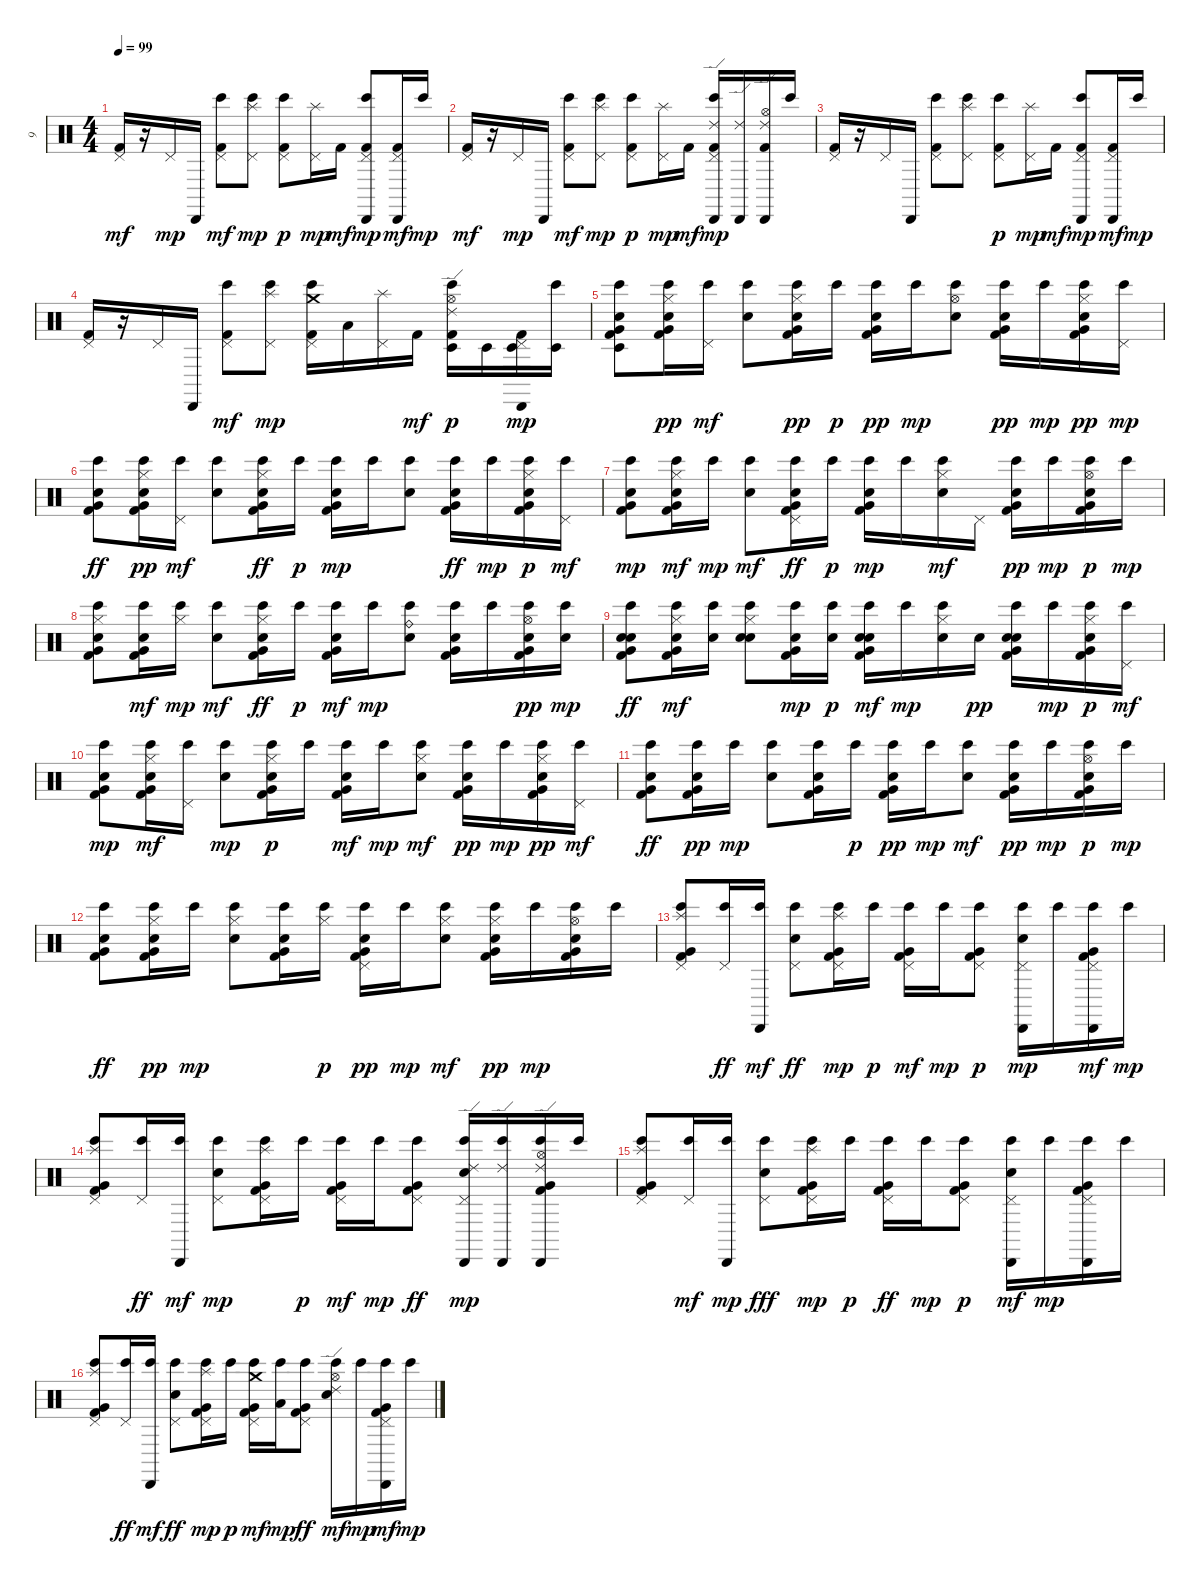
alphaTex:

\track ("9" "9") {instrument percussion}
\staff {score}
\articulation defaults
\ts (4 4)
\tempo 99
\clef neutral
\ks c
("Pedal Hi-Hat (hit)" "Kick (hit) 2").16{dy mf} r.16 "Pedal Hi-Hat (hit)".16{dy mp} "Cabasa (hit)".16 ("Bongo High (hit)" "Pedal Hi-Hat (hit)" "Kick (hit) 2").8{dy mf} ("Pedal Hi-Hat (hit)" "Bongo High (hit)" "Splash (hit)").8{dy mp} ("Kick (hit) 2" "Pedal Hi-Hat (hit)" "Bongo High (hit)").8{dy p} ("Splash (hit)" "Pedal Hi-Hat (hit)").16{dy mp} "Kick (hit) 2".16{dy mf} ("Bongo High (hit)" "Kick (hit) 2" "Cabasa (hit)" "Pedal Hi-Hat (hit)").8{dy mp} ("Pedal Hi-Hat (hit)" "Cabasa (hit)" "Kick (hit) 2").16{dy mf} "Bongo High (hit)".16{dy mp} |
("Pedal Hi-Hat (hit)" "Kick (hit) 2").16{dy mf} r.16 "Pedal Hi-Hat (hit)".16{dy mp} "Cabasa (hit)".16 ("Pedal Hi-Hat (hit)" "Bongo High (hit)" "Kick (hit) 2").8{dy mf} ("Pedal Hi-Hat (hit)" "Bongo High (hit)" "Splash (hit)").8{dy mp} ("Kick (hit) 2" "Pedal Hi-Hat (hit)" "Bongo High (hit)").8{dy p} ("Splash (hit)" "Pedal Hi-Hat (hit)").16{dy mp} "Kick (hit) 2".16{dy mf} ("Kick (hit) 2" "Ride (edge) 2" "Pedal Hi-Hat (hit)" "Cabasa (hit)" "Bongo High (hit)").16{dy mp} ("Ride (edge) 2" "Cabasa (hit)").16 ("Kick (hit) 2" "Ride (edge) 2" "Hi-Hat (open)" "Cabasa (hit)").16 "Bongo High (hit)".16 |
("Kick (hit) 2" "Pedal Hi-Hat (hit)").16 r.16 "Pedal Hi-Hat (hit)".16 "Cabasa (hit)".16 ("Bongo High (hit)" "Kick (hit) 2" "Pedal Hi-Hat (hit)").8 ("Bongo High (hit)" "Pedal Hi-Hat (hit)" "Splash (hit)").8 ("Pedal Hi-Hat (hit)" "Kick (hit) 2" "Bongo High (hit)").8{dy p} ("Pedal Hi-Hat (hit)" "Splash (hit)").16{dy mp} "Kick (hit) 2".16{dy mf} ("Pedal Hi-Hat (hit)" "Kick (hit) 2" "Cabasa (hit)" "Bongo High (hit)").8{dy mp} ("Pedal Hi-Hat (hit)" "Cabasa (hit)" "Kick (hit) 2").16{dy mf} "Bongo High (hit)".16{dy mp} |
("Kick (hit) 2" "Pedal Hi-Hat (hit)").16 r.16 "Pedal Hi-Hat (hit)".16 "Cabasa (hit)".16 ("Bongo High (hit)" "Pedal Hi-Hat (hit)" "Kick (hit) 2").8{dy mf} ("Pedal Hi-Hat (hit)" "Bongo High (hit)" "Splash (hit)").8{dy mp} ("Bongo High (hit)" "Kick (hit) 2" "Crash medium (hit)" "Pedal Hi-Hat (hit)").16 "Low Tom (hit)".16 ("Pedal Hi-Hat (hit)" "Splash (hit)").16 "Kick (hit) 2".16{dy mf} ("Hi-Hat (open)" "Kick (hit) 2" "Bongo High (hit)" "Ride (edge) 2" "Timbale low (hit)").16{dy p} "Timbale low (hit)".16 ("Kick (hit) 2" "Pedal Hi-Hat (hit)" "Cabasa (hit)" "Timbale low (hit)").16{dy mp} ("Bongo High (hit)" "Timbale low (hit)").16 |
("Electric Snare (hit)" "Kick (hit) 2" "Very Low Tom (hit)" "Timbale low (hit)" "Bongo High (hit)").8 ("Electric Snare (hit)" "Hi-Hat (closed)" "Bongo High (hit)" "Kick (hit) 2" "Very Low Tom (hit)").16{dy pp} ("Bongo High (hit)" "Pedal Hi-Hat (hit)").16{dy mf} ("Bongo High (hit)" "Electric Snare (hit)").8 ("Hi-Hat (closed)" "Kick (hit) 2" "Electric Snare (hit)" "Bongo High (hit)" "Very Low Tom (hit)").16{dy pp} "Bongo High (hit)".16{dy p} ("Very Low Tom (hit)" "Kick (hit) 2" "Bongo High (hit)" "Electric Snare (hit)").16{dy pp} "Bongo High (hit)".16{dy mp} ("Hi-Hat (open)" "Electric Snare (hit)" "Bongo High (hit)").8 ("Bongo High (hit)" "Kick (hit) 2" "Very Low Tom (hit)" "Electric Snare (hit)").16{dy pp} "Bongo High (hit)".16{dy mp} ("Bongo High (hit)" "Electric Snare (hit)" "Kick (hit) 2" "Hi-Hat (closed)" "Very Low Tom (hit)").16{dy pp} ("Pedal Hi-Hat (hit)" "Bongo High (hit)").16{dy mp} |
("Very Low Tom (hit)" "Electric Snare (hit)" "Bongo High (hit)" "Kick (hit) 2").8{dy ff} ("Electric Snare (hit)" "Hi-Hat (closed)" "Bongo High (hit)" "Kick (hit) 2" "Very Low Tom (hit)").16{dy pp} ("Bongo High (hit)" "Pedal Hi-Hat (hit)").16{dy mf} ("Bongo High (hit)" "Electric Snare (hit)").8 ("Hi-Hat (closed)" "Very Low Tom (hit)" "Electric Snare (hit)" "Bongo High (hit)" "Kick (hit) 2").16{dy ff} "Bongo High (hit)".16{dy p} ("Electric Snare (hit)" "Very Low Tom (hit)" "Bongo High (hit)" "Kick (hit) 2").16{dy mp} "Bongo High (hit)".16 ("Electric Snare (hit)" "Bongo High (hit)").8 ("Very Low Tom (hit)" "Bongo High (hit)" "Electric Snare (hit)" "Kick (hit) 2").16{dy ff} "Bongo High (hit)".16{dy mp} ("Kick (hit) 2" "Bongo High (hit)" "Hi-Hat (closed)" "Very Low Tom (hit)" "Electric Snare (hit)").16{dy p} ("Bongo High (hit)" "Pedal Hi-Hat (hit)").16{dy mf} |
("Kick (hit) 2" "Electric Snare (hit)" "Very Low Tom (hit)" "Bongo High (hit)").8{dy mp} ("Electric Snare (hit)" "Kick (hit) 2" "Very Low Tom (hit)" "Bongo High (hit)" "Hi-Hat (closed)").16{dy mf} "Bongo High (hit)".16{dy mp} ("Bongo High (hit)" "Electric Snare (hit)").8{dy mf} ("Pedal Hi-Hat (hit)" "Bongo High (hit)" "Very Low Tom (hit)" "Electric Snare (hit)" "Kick (hit) 2").16{dy ff} "Bongo High (hit)".16{dy p} ("Bongo High (hit)" "Very Low Tom (hit)" "Electric Snare (hit)" "Kick (hit) 2").16{dy mp} "Bongo High (hit)".16 ("Hi-Hat (closed)" "Bongo High (hit)" "Electric Snare (hit)").16{dy mf} "Pedal Hi-Hat (hit)".16 ("Very Low Tom (hit)" "Bongo High (hit)" "Kick (hit) 2" "Electric Snare (hit)").16{dy pp} "Bongo High (hit)".16{dy mp} ("Very Low Tom (hit)" "Bongo High (hit)" "Hi-Hat (open)" "Kick (hit) 2" "Electric Snare (hit)").16{dy p} "Bongo High (hit)".16{dy mp} |
("Hi-Hat (closed)" "Electric Snare (hit)" "Kick (hit) 2" "Very Low Tom (hit)" "Bongo High (hit)").8 ("Electric Snare (hit)" "Very Low Tom (hit)" "Kick (hit) 2" "Bongo High (hit)").16{dy mf} ("Hi-Hat (closed)" "Bongo High (hit)").16{dy mp} ("Bongo High (hit)" "Electric Snare (hit)").8{dy mf} ("Bongo High (hit)" "Very Low Tom (hit)" "Hi-Hat (closed)" "Electric Snare (hit)" "Kick (hit) 2").16{dy ff} "Bongo High (hit)".16{dy p} ("Kick (hit) 2" "Very Low Tom (hit)" "Electric Snare (hit)" "Bongo High (hit)").16{dy mf} "Bongo High (hit)".16{dy mp} ("Ride (bell)" "Electric Snare (hit)" "Bongo High (hit)").8 ("Electric Snare (hit)" "Kick (hit) 2" "Very Low Tom (hit)" "Bongo High (hit)").16 "Bongo High (hit)".16 ("Bongo High (hit)" "Electric Snare (hit)" "Hi-Hat (open)" "Kick (hit) 2" "Very Low Tom (hit)").16{dy pp} ("Bongo High (hit)" "Snare (hit) 2").16{dy mp} |
("Bongo High (hit)" "Snare (hit) 2" "Electric Snare (hit)" "Very Low Tom (hit)" "Kick (hit) 2").8{dy ff} ("Very Low Tom (hit)" "Electric Snare (hit)" "Kick (hit) 2" "Hi-Hat (closed)" "Bongo High (hit)").16{dy mf} ("Bongo High (hit)" "Snare (hit) 2").16 ("Electric Snare (hit)" "Bongo High (hit)" "Snare (hit) 2" "Hi-Hat (closed)").8 ("Very Low Tom (hit)" "Kick (hit) 2" "Electric Snare (hit)" "Bongo High (hit)").16{dy mp} ("Snare (hit) 2" "Bongo High (hit)").16{dy p} ("Snare (hit) 2" "Very Low Tom (hit)" "Electric Snare (hit)" "Kick (hit) 2" "Bongo High (hit)").16{dy mf} "Bongo High (hit)".16{dy mp} ("Hi-Hat (closed)" "Electric Snare (hit)" "Bongo High (hit)").16 "Snare (hit) 2".16{dy pp} ("Bongo High (hit)" "Very Low Tom (hit)" "Electric Snare (hit)" "Snare (hit) 2" "Kick (hit) 2").16 "Bongo High (hit)".16{dy mp} ("Hi-Hat (closed)" "Bongo High (hit)" "Very Low Tom (hit)" "Kick (hit) 2" "Electric Snare (hit)").16{dy p} ("Bongo High (hit)" "Pedal Hi-Hat (hit)").16{dy mf} |
("Electric Snare (hit)" "Kick (hit) 2" "Very Low Tom (hit)" "Bongo High (hit)").8{dy mp} ("Kick (hit) 2" "Very Low Tom (hit)" "Hi-Hat (closed)" "Electric Snare (hit)" "Bongo High (hit)").16{dy mf} ("Bongo High (hit)" "Pedal Hi-Hat (hit)").16 ("Electric Snare (hit)" "Bongo High (hit)").8{dy mp} ("Very Low Tom (hit)" "Bongo High (hit)" "Hi-Hat (closed)" "Kick (hit) 2" "Electric Snare (hit)").16{dy p} "Bongo High (hit)".16 ("Electric Snare (hit)" "Kick (hit) 2" "Very Low Tom (hit)" "Bongo High (hit)").16{dy mf} "Bongo High (hit)".16{dy mp} ("Bongo High (hit)" "Hi-Hat (closed)" "Electric Snare (hit)").8{dy mf} ("Bongo High (hit)" "Kick (hit) 2" "Very Low Tom (hit)" "Electric Snare (hit)").16{dy pp} "Bongo High (hit)".16{dy mp} ("Electric Snare (hit)" "Bongo High (hit)" "Hi-Hat (closed)" "Kick (hit) 2" "Very Low Tom (hit)").16{dy pp} ("Bongo High (hit)" "Pedal Hi-Hat (hit)").16{dy mf} |
("Very Low Tom (hit)" "Electric Snare (hit)" "Bongo High (hit)" "Kick (hit) 2").8{dy ff} ("Bongo High (hit)" "Kick (hit) 2" "Electric Snare (hit)" "Very Low Tom (hit)").16{dy pp} "Bongo High (hit)".16{dy mp} ("Electric Snare (hit)" "Bongo High (hit)").8 ("Kick (hit) 2" "Very Low Tom (hit)" "Electric Snare (hit)" "Bongo High (hit)").16 "Bongo High (hit)".16{dy p} ("Bongo High (hit)" "Very Low Tom (hit)" "Kick (hit) 2" "Electric Snare (hit)").16{dy pp} "Bongo High (hit)".16{dy mp} ("Bongo High (hit)" "Electric Snare (hit)").8{dy mf} ("Kick (hit) 2" "Very Low Tom (hit)" "Bongo High (hit)" "Electric Snare (hit)").16{dy pp} "Bongo High (hit)".16{dy mp} ("Bongo High (hit)" "Hi-Hat (open)" "Very Low Tom (hit)" "Kick (hit) 2" "Electric Snare (hit)").16{dy p} "Bongo High (hit)".16{dy mp} |
("Electric Snare (hit)" "Bongo High (hit)" "Very Low Tom (hit)" "Kick (hit) 2").8{dy ff} ("Kick (hit) 2" "Bongo High (hit)" "Hi-Hat (closed)" "Very Low Tom (hit)" "Electric Snare (hit)").16{dy pp} "Bongo High (hit)".16{dy mp} ("Electric Snare (hit)" "Hi-Hat (closed)" "Bongo High (hit)").8 ("Kick (hit) 2" "Very Low Tom (hit)" "Electric Snare (hit)" "Bongo High (hit)").16 ("Hi-Hat (closed)" "Bongo High (hit)").16{dy p} ("Kick (hit) 2" "Electric Snare (hit)" "Pedal Hi-Hat (hit)" "Bongo High (hit)" "Very Low Tom (hit)").16{dy pp} "Bongo High (hit)".16{dy mp} ("Bongo High (hit)" "Electric Snare (hit)" "Hi-Hat (closed)").8{dy mf} ("Kick (hit) 2" "Very Low Tom (hit)" "Hi-Hat (closed)" "Bongo High (hit)" "Electric Snare (hit)").16{dy pp} "Bongo High (hit)".16{dy mp} ("Hi-Hat (open)" "Electric Snare (hit)" "Kick (hit) 2" "Very Low Tom (hit)" "Bongo High (hit)").16 "Bongo High (hit)".16 |
("Very Low Tom (hit)" "Bongo High (hit)" "Pedal Hi-Hat (hit)" "Kick (hit) 2" "Splash (hit)").8 ("Bongo High (hit)" "Pedal Hi-Hat (hit)").16{dy ff} ("Bongo High (hit)" "Cabasa (hit)").16{dy mf} ("Bongo High (hit)" "Electric Snare (hit)" "Pedal Hi-Hat (hit)").8{dy ff} ("Kick (hit) 2" "Pedal Hi-Hat (hit)" "Bongo High (hit)" "Very Low Tom (hit)" "Splash (hit)").16{dy mp} "Bongo High (hit)".16{dy p} ("Pedal Hi-Hat (hit)" "Kick (hit) 2" "Very Low Tom (hit)" "Bongo High (hit)").16{dy mf} "Bongo High (hit)".16{dy mp} ("Pedal Hi-Hat (hit)" "Bongo High (hit)" "Kick (hit) 2" "Very Low Tom (hit)").8{dy p} ("Cabasa (hit)" "Pedal Hi-Hat (hit)" "Electric Snare (hit)" "Bongo High (hit)").16{dy mp} "Bongo High (hit)".16 ("Pedal Hi-Hat (hit)" "Bongo High (hit)" "Cabasa (hit)" "Very Low Tom (hit)" "Kick (hit) 2").16{dy mf} "Bongo High (hit)".16{dy mp} |
("Bongo High (hit)" "Pedal Hi-Hat (hit)" "Kick (hit) 2" "Very Low Tom (hit)" "Splash (hit)").8 ("Bongo High (hit)" "Pedal Hi-Hat (hit)").16{dy ff} ("Bongo High (hit)" "Cabasa (hit)").16{dy mf} ("Pedal Hi-Hat (hit)" "Electric Snare (hit)" "Bongo High (hit)").8{dy mp} ("Kick (hit) 2" "Pedal Hi-Hat (hit)" "Bongo High (hit)" "Very Low Tom (hit)" "Splash (hit)").16 "Bongo High (hit)".16{dy p} ("Pedal Hi-Hat (hit)" "Very Low Tom (hit)" "Kick (hit) 2" "Bongo High (hit)").16{dy mf} "Bongo High (hit)".16{dy mp} ("Very Low Tom (hit)" "Kick (hit) 2" "Bongo High (hit)" "Pedal Hi-Hat (hit)").8{dy ff} ("Pedal Hi-Hat (hit)" "Electric Snare (hit)" "Cabasa (hit)" "Ride (edge) 2" "Bongo High (hit)").16{dy mp} ("Ride (edge) 2" "Bongo High (hit)" "Cabasa (hit)").16 ("Kick (hit) 2" "Hi-Hat (open)" "Cabasa (hit)" "Ride (edge) 2" "Very Low Tom (hit)" "Bongo High (hit)").16 "Bongo High (hit)".16 |
("Bongo High (hit)" "Pedal Hi-Hat (hit)" "Kick (hit) 2" "Very Low Tom (hit)" "Splash (hit)").8 ("Pedal Hi-Hat (hit)" "Bongo High (hit)").16{dy mf} ("Cabasa (hit)" "Bongo High (hit)").16{dy mp} ("Bongo High (hit)" "Pedal Hi-Hat (hit)" "Electric Snare (hit)").8{dy fff} ("Kick (hit) 2" "Pedal Hi-Hat (hit)" "Very Low Tom (hit)" "Bongo High (hit)" "Splash (hit)").16{dy mp} "Bongo High (hit)".16{dy p} ("Kick (hit) 2" "Very Low Tom (hit)" "Bongo High (hit)" "Pedal Hi-Hat (hit)").16{dy ff} "Bongo High (hit)".16{dy mp} ("Bongo High (hit)" "Pedal Hi-Hat (hit)" "Very Low Tom (hit)" "Kick (hit) 2").8{dy p} ("Electric Snare (hit)" "Pedal Hi-Hat (hit)" "Bongo High (hit)" "Cabasa (hit)").16{dy mf} "Bongo High (hit)".16{dy mp} ("Cabasa (hit)" "Kick (hit) 2" "Very Low Tom (hit)" "Pedal Hi-Hat (hit)" "Bongo High (hit)").16 "Bongo High (hit)".16 |
("Kick (hit) 2" "Bongo High (hit)" "Pedal Hi-Hat (hit)" "Very Low Tom (hit)" "Splash (hit)").8 ("Bongo High (hit)" "Pedal Hi-Hat (hit)").16{dy ff} ("Bongo High (hit)" "Cabasa (hit)").16{dy mf} ("Bongo High (hit)" "Electric Snare (hit)" "Pedal Hi-Hat (hit)").8{dy ff} ("Kick (hit) 2" "Very Low Tom (hit)" "Pedal Hi-Hat (hit)" "Bongo High (hit)" "Splash (hit)").16{dy mp} "Bongo High (hit)".16{dy p} ("Pedal Hi-Hat (hit)" "Crash medium (hit)" "Very Low Tom (hit)" "Kick (hit) 2" "Bongo High (hit)").16{dy mf} ("Bongo High (hit)" "Low Tom (hit)").16{dy mp} ("Bongo High (hit)" "Kick (hit) 2" "Very Low Tom (hit)" "Pedal Hi-Hat (hit)").8{dy ff} ("Hi-Hat (open)" "Electric Snare (hit)" "Bongo High (hit)" "Ride (edge) 2").16{dy mf} "Bongo High (hit)".16{dy mp} ("Bongo High (hit)" "Very Low Tom (hit)" "Cabasa (hit)" "Pedal Hi-Hat (hit)" "Kick (hit) 2").16{dy mf} "Bongo High (hit)".16{dy mp}
